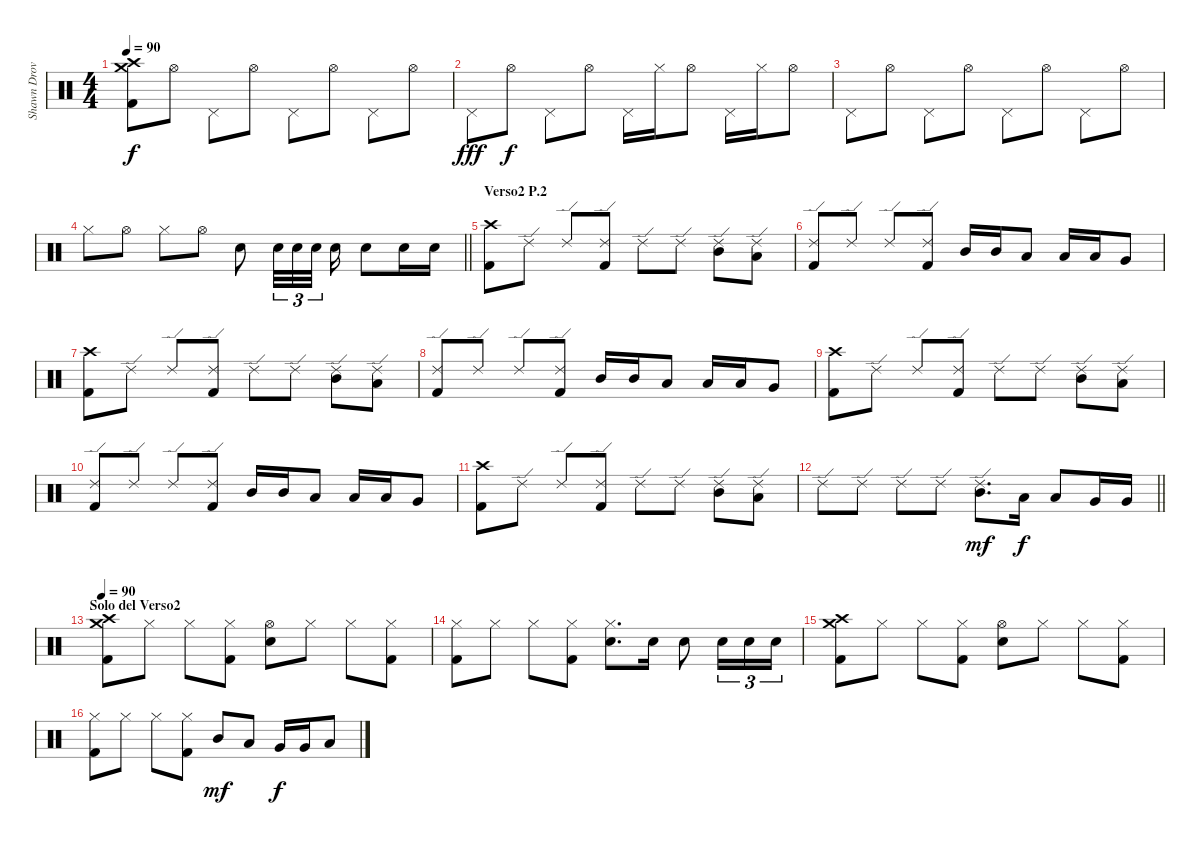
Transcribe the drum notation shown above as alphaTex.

\track ("Shawn Drover" "Shawn Drov") {instrument percussion}
\staff {score}
\articulation defaults
\ts (4 4)
\tempo 90
\clef neutral
\ks c
("Crash high (hit)" "Crash medium (hit)" "Kick (hit) 2").8{dy f} "Hi-Hat (open)".8 "Pedal Hi-Hat (hit)".8 "Hi-Hat (open)".8 "Pedal Hi-Hat (hit)".8 "Hi-Hat (open)".8 "Pedal Hi-Hat (hit)".8 "Hi-Hat (open)".8 |
"Pedal Hi-Hat (hit)".8{dy fff} "Hi-Hat (open)".8{dy f} "Pedal Hi-Hat (hit)".8 "Hi-Hat (open)".8 "Pedal Hi-Hat (hit)".16 "Hi-Hat (closed)".16 "Hi-Hat (open)".8 "Pedal Hi-Hat (hit)".16 "Hi-Hat (closed)".16 "Hi-Hat (open)".8 |
"Pedal Hi-Hat (hit)".8 "Hi-Hat (open)".8 "Pedal Hi-Hat (hit)".8 "Hi-Hat (open)".8 "Pedal Hi-Hat (hit)".8 "Hi-Hat (open)".8 "Pedal Hi-Hat (hit)".8 "Hi-Hat (open)".8 |
\barLineRight lightlight "Hi-Hat (closed)".8 "Hi-Hat (open)".8 "Hi-Hat (closed)".8 "Hi-Hat (open)".8 "Electric Snare (hit)".8 "Electric Snare (hit)".32{tu (3 2)} "Electric Snare (hit)".32{tu (3 2)} "Electric Snare (hit)".32{tu (3 2) beam splitsecondary} "Electric Snare (hit)".16 "Electric Snare (hit)".8 "Electric Snare (hit)".16 "Electric Snare (hit)".16
|
\section ("" "Verso2 P.2")
("Crash high (hit)" "Kick (hit) 2").8 "Ride (edge) 2".8 "Ride (edge) 2".8 ("Ride (edge) 2" "Kick (hit) 2").8 "Ride (edge) 2".8 "Ride (edge) 2".8 ("Ride (edge) 2" "Mid Tom (hit)").8 ("Ride (edge) 2" "Low Tom (hit)").8 |
("Ride (edge) 2" "Kick (hit) 2").8 "Ride (edge) 2".8 "Ride (edge) 2".8 ("Ride (edge) 2" "Kick (hit) 2").8 "Mid Tom (hit)".16 "Mid Tom (hit)".16 "Low Tom (hit)".8 "Low Tom (hit)".16 "Low Tom (hit)".16 "Very Low Tom (hit)".8 |
("Crash high (hit)" "Kick (hit) 2").8 "Ride (edge) 2".8 "Ride (edge) 2".8 ("Ride (edge) 2" "Kick (hit) 2").8 "Ride (edge) 2".8 "Ride (edge) 2".8 ("Ride (edge) 2" "Mid Tom (hit)").8 ("Ride (edge) 2" "Low Tom (hit)").8 |
("Ride (edge) 2" "Kick (hit) 2").8 "Ride (edge) 2".8 "Ride (edge) 2".8 ("Ride (edge) 2" "Kick (hit) 2").8 "Mid Tom (hit)".16 "Mid Tom (hit)".16 "Low Tom (hit)".8 "Low Tom (hit)".16 "Low Tom (hit)".16 "Very Low Tom (hit)".8 |
("Crash high (hit)" "Kick (hit) 2").8 "Ride (edge) 2".8 "Ride (edge) 2".8 ("Ride (edge) 2" "Kick (hit) 2").8 "Ride (edge) 2".8 "Ride (edge) 2".8 ("Ride (edge) 2" "Mid Tom (hit)").8 ("Ride (edge) 2" "Low Tom (hit)").8 |
("Ride (edge) 2" "Kick (hit) 2").8 "Ride (edge) 2".8 "Ride (edge) 2".8 ("Ride (edge) 2" "Kick (hit) 2").8 "Mid Tom (hit)".16 "Mid Tom (hit)".16 "Low Tom (hit)".8 "Low Tom (hit)".16 "Low Tom (hit)".16 "Very Low Tom (hit)".8 |
("Crash high (hit)" "Kick (hit) 2").8 "Ride (edge) 2".8 "Ride (edge) 2".8 ("Ride (edge) 2" "Kick (hit) 2").8 "Ride (edge) 2".8 "Ride (edge) 2".8 ("Ride (edge) 2" "Mid Tom (hit)").8 ("Ride (edge) 2" "Low Tom (hit)").8 |
\barLineRight lightlight "Ride (edge) 2".8 "Ride (edge) 2".8 "Ride (edge) 2".8 "Ride (edge) 2".8
("Ride (edge) 2" "Mid Tom (hit)").8{d dy mf} "Low Tom (hit)".16{dy f} "Low Tom (hit)".8 "Very Low Tom (hit)".16 "Very Low Tom (hit)".16 |
\section ("" "Solo del Verso2")
\tempo 90
("Crash high (hit)" "Crash medium (hit)" "Kick (hit) 2").8 "Hi-Hat (closed)".8 "Hi-Hat (closed)".8 ("Hi-Hat (closed)" "Kick (hit) 2").8 ("Hi-Hat (open)" "Electric Snare (hit)").8 "Hi-Hat (closed)".8 "Hi-Hat (closed)".8 ("Hi-Hat (closed)" "Kick (hit) 2").8 |
("Hi-Hat (closed)" "Kick (hit) 2").8 "Hi-Hat (closed)".8 "Hi-Hat (closed)".8 ("Hi-Hat (closed)" "Kick (hit) 2").8 ("Hi-Hat (closed)" "Electric Snare (hit)").8{d} "Electric Snare (hit)".16 "Electric Snare (hit)".8 "Electric Snare (hit)".16{tu (3 2)} "Electric Snare (hit)".16{tu (3 2)} "Electric Snare (hit)".16{tu (3 2)} |
("Crash high (hit)" "Crash medium (hit)" "Kick (hit) 2").8 "Hi-Hat (closed)".8 "Hi-Hat (closed)".8 ("Hi-Hat (closed)" "Kick (hit) 2").8 ("Hi-Hat (open)" "Electric Snare (hit)").8 "Hi-Hat (closed)".8 "Hi-Hat (closed)".8 ("Hi-Hat (closed)" "Kick (hit) 2").8 |
("Hi-Hat (closed)" "Kick (hit) 2").8 "Hi-Hat (closed)".8 "Hi-Hat (closed)".8 ("Hi-Hat (closed)" "Kick (hit) 2").8 "Mid Tom (hit)".8{dy mf} "Low Tom (hit)".8 "Very Low Tom (hit)".16{dy f} "Very Low Tom (hit)".16 "Low Floor Tom (hit)".8
